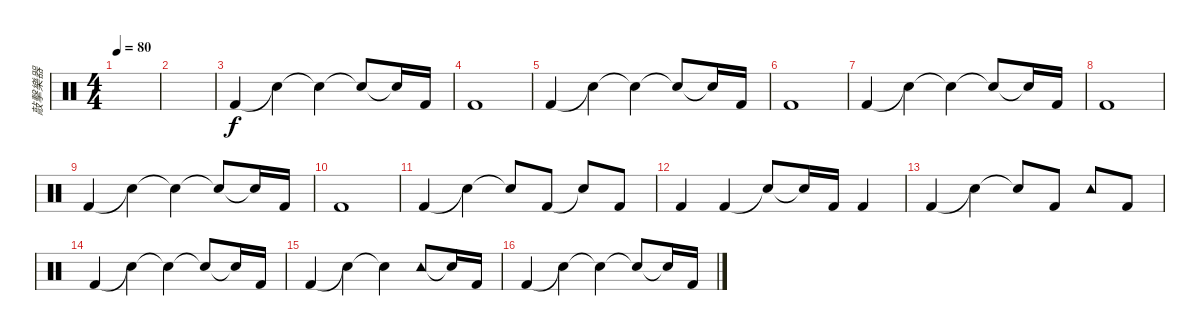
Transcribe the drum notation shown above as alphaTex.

\track ("敲擊樂器" "敲擊樂器") {instrument percussion}
\staff {score}
\articulation defaults
\ts (4 4)
\tempo 80
\clef neutral
\ks c
|
|
"Kick (hit) 2".4 "Snare (hit)"{t}.4 "Snare (hit)"{t}.4 "Snare (hit)"{t}.8 "Snare (hit)"{t}.16 "Kick (hit) 2".16 |
"Kick (hit) 2".1 |
"Kick (hit) 2".4 "Snare (hit)"{t}.4 "Snare (hit)"{t}.4 "Snare (hit)"{t}.8 "Snare (hit)"{t}.16 "Kick (hit) 2".16 |
"Kick (hit) 2".1 |
"Kick (hit) 2".4 "Snare (hit)"{t}.4 "Snare (hit)"{t}.4 "Snare (hit)"{t}.8 "Snare (hit)"{t}.16 "Kick (hit) 2".16 |
"Kick (hit) 2".1 |
"Kick (hit) 2".4 "Snare (hit)"{t}.4 "Snare (hit)"{t}.4 "Snare (hit)"{t}.8 "Snare (hit)"{t}.16 "Kick (hit) 2".16 |
"Kick (hit) 2".1 |
"Kick (hit) 2".4 "Snare (hit)"{t}.4 "Snare (hit)"{t}.8 "Kick (hit) 2".8 "Snare (hit)"{t}.8 "Kick (hit) 2".8 |
"Kick (hit) 2".4 "Kick (hit) 2".4 "Snare (hit)"{t}.8 "Snare (hit)"{t}.16 "Kick (hit) 2".16 "Kick (hit) 2".4 |
"Kick (hit) 2".4 "Snare (hit)"{t}.4 "Snare (hit)"{t}.8 "Kick (hit) 2".8 "Tambourine (hit)".8 "Kick (hit) 2".8 |
"Kick (hit) 2".4 "Snare (hit)"{t}.4 "Snare (hit)"{t}.4 "Snare (hit)"{t}.8 "Snare (hit)"{t}.16 "Kick (hit) 2".16 |
"Kick (hit) 2".4 "Snare (hit)"{t}.4 "Snare (hit)"{t}.4 "Tambourine (hit)".8 "Snare (hit)"{t}.16 "Kick (hit) 2".16 |
"Kick (hit) 2".4 "Snare (hit)"{t}.4 "Snare (hit)"{t}.4 "Snare (hit)"{t}.8 "Snare (hit)"{t}.16 "Kick (hit) 2".16
